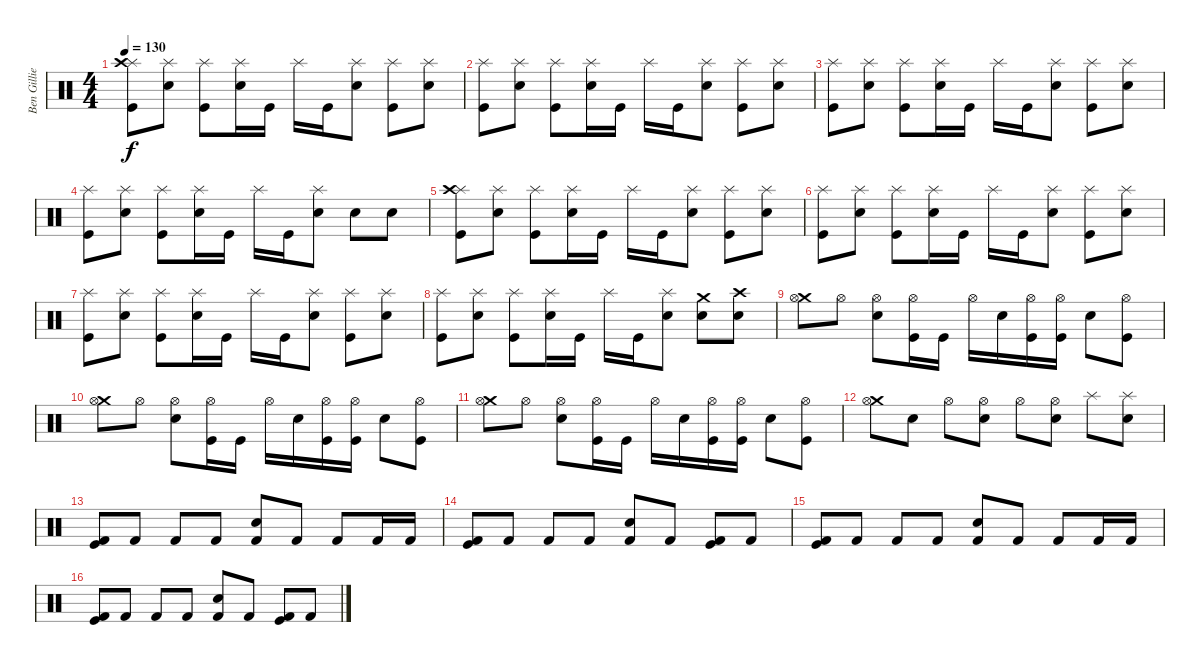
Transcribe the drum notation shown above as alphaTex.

\track ("Ben Gillies (Drums)" "Ben Gillie") {instrument percussion}
\staff {score}
\articulation defaults
\ts (4 4)
\tempo 130
\clef neutral
\ks c
("Splash (hit)" "Kick (hit)" "Crash high (hit)").8{dy f} ("Electric Snare (hit)" "Splash (hit)").8 ("Splash (hit)" "Kick (hit)").8 ("Electric Snare (hit)" "Splash (hit)").16 "Kick (hit)".16 "Splash (hit)".16 "Kick (hit)".16 ("Electric Snare (hit)" "Splash (hit)").8 ("Splash (hit)" "Kick (hit)").8 ("Electric Snare (hit)" "Splash (hit)").8 |
("Splash (hit)" "Kick (hit)").8 ("Electric Snare (hit)" "Splash (hit)").8 ("Splash (hit)" "Kick (hit)").8 ("Electric Snare (hit)" "Splash (hit)").16 "Kick (hit)".16 "Splash (hit)".16 "Kick (hit)".16 ("Electric Snare (hit)" "Splash (hit)").8 ("Splash (hit)" "Kick (hit)").8 ("Electric Snare (hit)" "Splash (hit)").8 |
("Splash (hit)" "Kick (hit)").8 ("Electric Snare (hit)" "Splash (hit)").8 ("Splash (hit)" "Kick (hit)").8 ("Electric Snare (hit)" "Splash (hit)").16 "Kick (hit)".16 "Splash (hit)".16 "Kick (hit)".16 ("Electric Snare (hit)" "Splash (hit)").8 ("Splash (hit)" "Kick (hit)").8 ("Electric Snare (hit)" "Splash (hit)").8 |
("Splash (hit)" "Kick (hit)").8 ("Electric Snare (hit)" "Splash (hit)").8 ("Splash (hit)" "Kick (hit)").8 ("Electric Snare (hit)" "Splash (hit)").16 "Kick (hit)".16 "Splash (hit)".16 "Kick (hit)".16 ("Electric Snare (hit)" "Splash (hit)").8 "Snare (hit) 2".8 "Snare (hit) 2".8 |
("Splash (hit)" "Kick (hit)" "Crash high (hit)").8 ("Electric Snare (hit)" "Splash (hit)").8 ("Splash (hit)" "Kick (hit)").8 ("Electric Snare (hit)" "Splash (hit)").16 "Kick (hit)".16 "Splash (hit)".16 "Kick (hit)".16 ("Electric Snare (hit)" "Splash (hit)").8 ("Splash (hit)" "Kick (hit)").8 ("Electric Snare (hit)" "Splash (hit)").8 |
("Splash (hit)" "Kick (hit)").8 ("Electric Snare (hit)" "Splash (hit)").8 ("Splash (hit)" "Kick (hit)").8 ("Electric Snare (hit)" "Splash (hit)").16 "Kick (hit)".16 "Splash (hit)".16 "Kick (hit)".16 ("Electric Snare (hit)" "Splash (hit)").8 ("Splash (hit)" "Kick (hit)").8 ("Electric Snare (hit)" "Splash (hit)").8 |
("Splash (hit)" "Kick (hit)").8 ("Electric Snare (hit)" "Splash (hit)").8 ("Splash (hit)" "Kick (hit)").8 ("Electric Snare (hit)" "Splash (hit)").16 "Kick (hit)".16 "Splash (hit)".16 "Kick (hit)".16 ("Electric Snare (hit)" "Splash (hit)").8 ("Splash (hit)" "Kick (hit)").8 ("Electric Snare (hit)" "Splash (hit)").8 |
("Splash (hit)" "Kick (hit)").8 ("Electric Snare (hit)" "Splash (hit)").8 ("Splash (hit)" "Kick (hit)").8 ("Electric Snare (hit)" "Splash (hit)").16 "Kick (hit)".16 "Splash (hit)".16 "Kick (hit)".16 ("Electric Snare (hit)" "Splash (hit)").8 ("Crash medium (hit)" "Snare (hit) 2").8 ("Crash high (hit)" "Snare (hit) 2").8 |
("Crash medium (hit)" "Hi-Hat (open)").8 "Hi-Hat (open)".8 ("Electric Snare (hit)" "Hi-Hat (open)").8 ("Hi-Hat (open)" "Kick (hit)").16 "Kick (hit)".16 "Hi-Hat (open)".16 "Electric Snare (hit)".16 ("Hi-Hat (open)" "Kick (hit)").16 ("Hi-Hat (open)" "Kick (hit)").16 "Electric Snare (hit)".8 ("Hi-Hat (open)" "Kick (hit)").8 |
("Crash medium (hit)" "Hi-Hat (open)").8 "Hi-Hat (open)".8 ("Electric Snare (hit)" "Hi-Hat (open)").8 ("Hi-Hat (open)" "Kick (hit)").16 "Kick (hit)".16 "Hi-Hat (open)".16 "Electric Snare (hit)".16 ("Hi-Hat (open)" "Kick (hit)").16 ("Hi-Hat (open)" "Kick (hit)").16 "Electric Snare (hit)".8 ("Hi-Hat (open)" "Kick (hit)").8 |
("Crash medium (hit)" "Hi-Hat (open)").8 "Hi-Hat (open)".8 ("Electric Snare (hit)" "Hi-Hat (open)").8 ("Hi-Hat (open)" "Kick (hit)").16 "Kick (hit)".16 "Hi-Hat (open)".16 "Electric Snare (hit)".16 ("Hi-Hat (open)" "Kick (hit)").16 ("Hi-Hat (open)" "Kick (hit)").16 "Electric Snare (hit)".8 ("Hi-Hat (open)" "Kick (hit)").8 |
("Crash medium (hit)" "Hi-Hat (open)").8 "Electric Snare (hit)".8 "Hi-Hat (open)".8 ("Electric Snare (hit)" "Hi-Hat (open)").8 "Hi-Hat (open)".8 ("Electric Snare (hit)" "Hi-Hat (open)").8 "Splash (hit)".8 ("Electric Snare (hit)" "Splash (hit)").8 |
("Kick (hit) 2" "Kick (hit)").8 "Kick (hit) 2".8 "Kick (hit) 2".8 "Kick (hit) 2".8 ("Electric Snare (hit)" "Kick (hit) 2").8 "Kick (hit) 2".8 "Kick (hit) 2".8 "Kick (hit) 2".16 "Kick (hit) 2".16 |
("Kick (hit) 2" "Kick (hit)").8 "Kick (hit) 2".8 "Kick (hit) 2".8 "Kick (hit) 2".8 ("Electric Snare (hit)" "Kick (hit) 2").8 "Kick (hit) 2".8 ("Kick (hit) 2" "Kick (hit)").8 "Kick (hit) 2".8 |
("Kick (hit) 2" "Kick (hit)").8 "Kick (hit) 2".8 "Kick (hit) 2".8 "Kick (hit) 2".8 ("Electric Snare (hit)" "Kick (hit) 2").8 "Kick (hit) 2".8 "Kick (hit) 2".8 "Kick (hit) 2".16 "Kick (hit) 2".16 |
("Kick (hit) 2" "Kick (hit)").8 "Kick (hit) 2".8 "Kick (hit) 2".8 "Kick (hit) 2".8 ("Electric Snare (hit)" "Kick (hit) 2").8 "Kick (hit) 2".8 ("Kick (hit) 2" "Kick (hit)").8 "Kick (hit) 2".8
